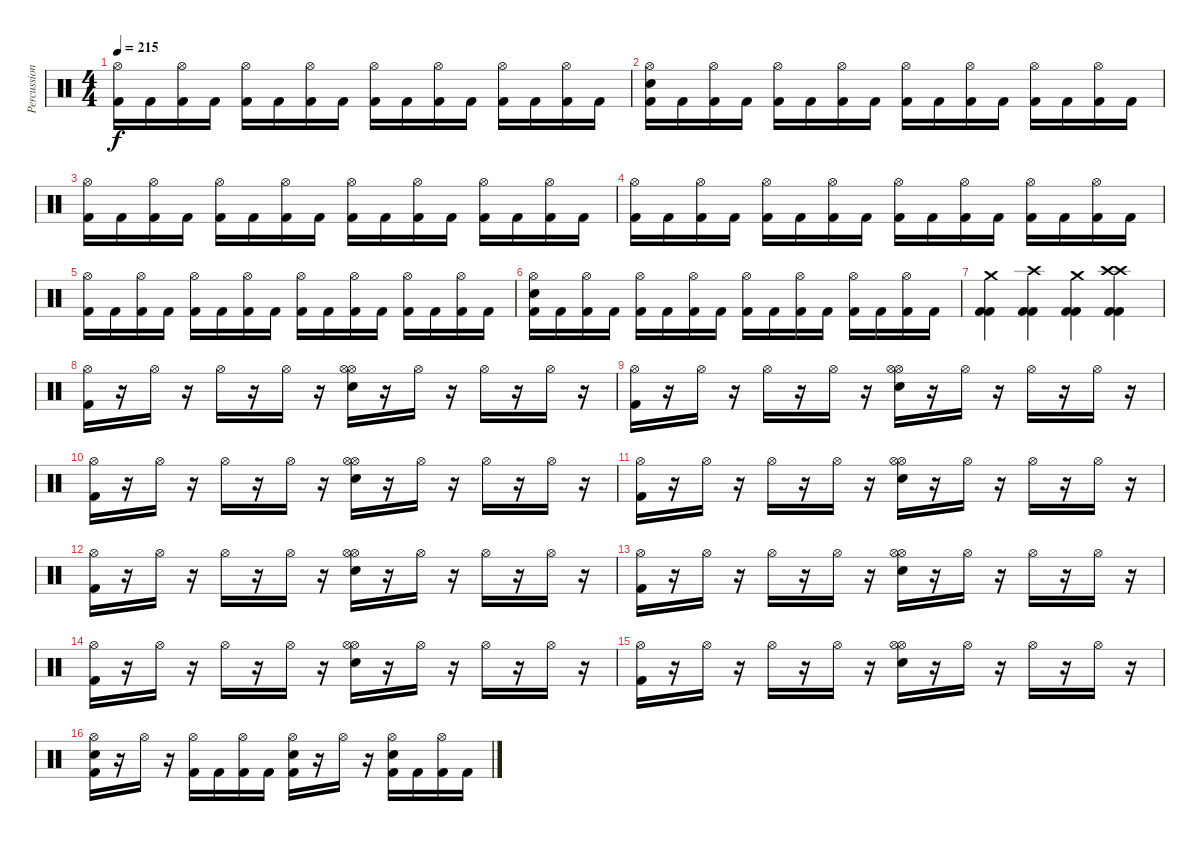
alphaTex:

\track ("Percussion" "Percussion") {instrument percussion}
\staff {score}
\articulation defaults
\ts (4 4)
\tempo 215
\clef neutral
\ks c
("Hi-Hat (open)" "Kick (hit) 2").16{dy f} "Kick (hit) 2".16 ("Hi-Hat (open)" "Kick (hit) 2").16 "Kick (hit) 2".16 ("Hi-Hat (open)" "Kick (hit) 2").16 "Kick (hit) 2".16 ("Hi-Hat (open)" "Kick (hit) 2").16 "Kick (hit) 2".16 ("Hi-Hat (open)" "Kick (hit) 2").16 "Kick (hit) 2".16 ("Hi-Hat (open)" "Kick (hit) 2").16 "Kick (hit) 2".16 ("Hi-Hat (open)" "Kick (hit) 2").16 "Kick (hit) 2".16 ("Hi-Hat (open)" "Kick (hit) 2").16 "Kick (hit) 2".16 |
("Hi-Hat (open)" "Electric Snare (hit)" "Kick (hit) 2").16 "Kick (hit) 2".16 ("Hi-Hat (open)" "Kick (hit) 2").16 "Kick (hit) 2".16 ("Hi-Hat (open)" "Kick (hit) 2").16 "Kick (hit) 2".16 ("Hi-Hat (open)" "Kick (hit) 2").16 "Kick (hit) 2".16 ("Hi-Hat (open)" "Kick (hit) 2").16 "Kick (hit) 2".16 ("Hi-Hat (open)" "Kick (hit) 2").16 "Kick (hit) 2".16 ("Hi-Hat (open)" "Kick (hit) 2").16 "Kick (hit) 2".16 ("Hi-Hat (open)" "Kick (hit) 2").16 "Kick (hit) 2".16 |
("Hi-Hat (open)" "Kick (hit) 2").16 "Kick (hit) 2".16 ("Hi-Hat (open)" "Kick (hit) 2").16 "Kick (hit) 2".16 ("Hi-Hat (open)" "Kick (hit) 2").16 "Kick (hit) 2".16 ("Hi-Hat (open)" "Kick (hit) 2").16 "Kick (hit) 2".16 ("Hi-Hat (open)" "Kick (hit) 2").16 "Kick (hit) 2".16 ("Hi-Hat (open)" "Kick (hit) 2").16 "Kick (hit) 2".16 ("Hi-Hat (open)" "Kick (hit) 2").16 "Kick (hit) 2".16 ("Hi-Hat (open)" "Kick (hit) 2").16 "Kick (hit) 2".16 |
("Hi-Hat (open)" "Kick (hit) 2").16 "Kick (hit) 2".16 ("Hi-Hat (open)" "Kick (hit) 2").16 "Kick (hit) 2".16 ("Hi-Hat (open)" "Kick (hit) 2").16 "Kick (hit) 2".16 ("Hi-Hat (open)" "Kick (hit) 2").16 "Kick (hit) 2".16 ("Hi-Hat (open)" "Kick (hit) 2").16 "Kick (hit) 2".16 ("Hi-Hat (open)" "Kick (hit) 2").16 "Kick (hit) 2".16 ("Hi-Hat (open)" "Kick (hit) 2").16 "Kick (hit) 2".16 ("Hi-Hat (open)" "Kick (hit) 2").16 "Kick (hit) 2".16 |
("Hi-Hat (open)" "Kick (hit) 2").16 "Kick (hit) 2".16 ("Hi-Hat (open)" "Kick (hit) 2").16 "Kick (hit) 2".16 ("Hi-Hat (open)" "Kick (hit) 2").16 "Kick (hit) 2".16 ("Hi-Hat (open)" "Kick (hit) 2").16 "Kick (hit) 2".16 ("Hi-Hat (open)" "Kick (hit) 2").16 "Kick (hit) 2".16 ("Hi-Hat (open)" "Kick (hit) 2").16 "Kick (hit) 2".16 ("Hi-Hat (open)" "Kick (hit) 2").16 "Kick (hit) 2".16 ("Hi-Hat (open)" "Kick (hit) 2").16 "Kick (hit) 2".16 |
("Hi-Hat (open)" "Electric Snare (hit)" "Kick (hit) 2").16 "Kick (hit) 2".16 ("Hi-Hat (open)" "Kick (hit) 2").16 "Kick (hit) 2".16 ("Hi-Hat (open)" "Kick (hit) 2").16 "Kick (hit) 2".16 ("Hi-Hat (open)" "Kick (hit) 2").16 "Kick (hit) 2".16 ("Hi-Hat (open)" "Kick (hit) 2").16 "Kick (hit) 2".16 ("Hi-Hat (open)" "Kick (hit) 2").16 "Kick (hit) 2".16 ("Hi-Hat (open)" "Kick (hit) 2").16 "Kick (hit) 2".16 ("Hi-Hat (open)" "Kick (hit) 2").16 "Kick (hit) 2".16 |
("Crash medium (hit)" "Kick (hit) 2" "Kick (hit) 2").4 ("Crash high (hit)" "Kick (hit) 2" "Kick (hit) 2").4 ("Crash medium (hit)" "Kick (hit) 2" "Kick (hit) 2").4 ("Crash high (hit)" "Crash high (hit)" "Kick (hit) 2" "Kick (hit) 2").4 |
("Hi-Hat (open)" "Kick (hit) 2").16 r.16 "Hi-Hat (open)".16 r.16 "Hi-Hat (open)".16 r.16 "Hi-Hat (open)".16 r.16 ("Hi-Hat (open)" "Electric Snare (hit)" "Hi-Hat (open)").16 r.16 "Hi-Hat (open)".16 r.16 "Hi-Hat (open)".16 r.16 "Hi-Hat (open)".16 r.16 |
("Hi-Hat (open)" "Kick (hit) 2").16 r.16 "Hi-Hat (open)".16 r.16 "Hi-Hat (open)".16 r.16 "Hi-Hat (open)".16 r.16 ("Hi-Hat (open)" "Electric Snare (hit)" "Hi-Hat (open)").16 r.16 "Hi-Hat (open)".16 r.16 "Hi-Hat (open)".16 r.16 "Hi-Hat (open)".16 r.16 |
("Hi-Hat (open)" "Kick (hit) 2").16 r.16 "Hi-Hat (open)".16 r.16 "Hi-Hat (open)".16 r.16 "Hi-Hat (open)".16 r.16 ("Hi-Hat (open)" "Electric Snare (hit)" "Hi-Hat (open)").16 r.16 "Hi-Hat (open)".16 r.16 "Hi-Hat (open)".16 r.16 "Hi-Hat (open)".16 r.16 |
("Hi-Hat (open)" "Kick (hit) 2").16 r.16 "Hi-Hat (open)".16 r.16 "Hi-Hat (open)".16 r.16 "Hi-Hat (open)".16 r.16 ("Hi-Hat (open)" "Electric Snare (hit)" "Hi-Hat (open)").16 r.16 "Hi-Hat (open)".16 r.16 "Hi-Hat (open)".16 r.16 "Hi-Hat (open)".16 r.16 |
("Hi-Hat (open)" "Kick (hit) 2").16 r.16 "Hi-Hat (open)".16 r.16 "Hi-Hat (open)".16 r.16 "Hi-Hat (open)".16 r.16 ("Hi-Hat (open)" "Electric Snare (hit)" "Hi-Hat (open)").16 r.16 "Hi-Hat (open)".16 r.16 "Hi-Hat (open)".16 r.16 "Hi-Hat (open)".16 r.16 |
("Hi-Hat (open)" "Kick (hit) 2").16 r.16 "Hi-Hat (open)".16 r.16 "Hi-Hat (open)".16 r.16 "Hi-Hat (open)".16 r.16 ("Hi-Hat (open)" "Electric Snare (hit)" "Hi-Hat (open)").16 r.16 "Hi-Hat (open)".16 r.16 "Hi-Hat (open)".16 r.16 "Hi-Hat (open)".16 r.16 |
("Hi-Hat (open)" "Kick (hit) 2").16 r.16 "Hi-Hat (open)".16 r.16 "Hi-Hat (open)".16 r.16 "Hi-Hat (open)".16 r.16 ("Hi-Hat (open)" "Electric Snare (hit)" "Hi-Hat (open)").16 r.16 "Hi-Hat (open)".16 r.16 "Hi-Hat (open)".16 r.16 "Hi-Hat (open)".16 r.16 |
("Hi-Hat (open)" "Kick (hit) 2").16 r.16 "Hi-Hat (open)".16 r.16 "Hi-Hat (open)".16 r.16 "Hi-Hat (open)".16 r.16 ("Hi-Hat (open)" "Electric Snare (hit)" "Hi-Hat (open)").16 r.16 "Hi-Hat (open)".16 r.16 "Hi-Hat (open)".16 r.16 "Hi-Hat (open)".16 r.16 |
("Hi-Hat (open)" "Electric Snare (hit)" "Kick (hit) 2").16 r.16 "Hi-Hat (open)".16 r.16 ("Hi-Hat (open)" "Kick (hit) 2").16 "Kick (hit) 2".16 ("Hi-Hat (open)" "Kick (hit) 2").16 "Kick (hit) 2".16 ("Hi-Hat (open)" "Electric Snare (hit)" "Kick (hit) 2").16 r.16 "Hi-Hat (open)".16 r.16 ("Hi-Hat (open)" "Electric Snare (hit)" "Kick (hit) 2").16 "Kick (hit) 2".16 ("Hi-Hat (open)" "Kick (hit) 2").16 "Kick (hit) 2".16
